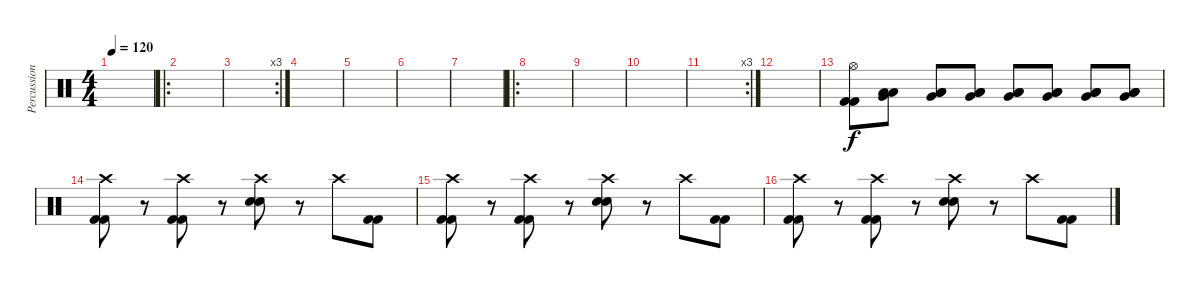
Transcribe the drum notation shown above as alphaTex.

\track ("Percussion" "Percussion") {instrument percussion}
\staff {score}
\articulation defaults
\ts (4 4)
\tempo 120
\clef neutral
\ks c
|
\ro
|
\rc 3
|
|
|
|
|
\ro
|
|
|
\rc 3
|
|
("Hi-Hat (open)" "Kick (hit) 2" "Kick (hit) 2").8 ("Very Low Tom (hit)" "Low Floor Tom (hit)" "Low Floor Tom (hit)").8 ("Very Low Tom (hit)" "Low Floor Tom (hit)" "Low Floor Tom (hit)").8 ("Very Low Tom (hit)" "Low Floor Tom (hit)" "Low Floor Tom (hit)").8 ("Very Low Tom (hit)" "Low Floor Tom (hit)" "Low Floor Tom (hit)").8 ("Very Low Tom (hit)" "Low Floor Tom (hit)" "Low Floor Tom (hit)").8 ("Very Low Tom (hit)" "Low Floor Tom (hit)" "Low Floor Tom (hit)").8 ("Very Low Tom (hit)" "Low Floor Tom (hit)" "Low Floor Tom (hit)").8 |
("Crash high (hit)" "Kick (hit) 2" "Kick (hit) 2").8 r.8 ("Crash high (hit)" "Kick (hit) 2" "Kick (hit) 2").8 r.8 ("Crash high (hit)" "Snare (hit) 2" "Snare (hit) 2").8 r.8 "Crash high (hit)".8 ("Kick (hit) 2" "Kick (hit) 2").8 |
("Crash high (hit)" "Kick (hit) 2" "Kick (hit) 2").8 r.8 ("Crash high (hit)" "Kick (hit) 2" "Kick (hit) 2").8 r.8 ("Crash high (hit)" "Snare (hit) 2" "Snare (hit) 2").8 r.8 "Crash high (hit)".8 ("Kick (hit) 2" "Kick (hit) 2").8 |
("Crash high (hit)" "Kick (hit) 2" "Kick (hit) 2").8 r.8 ("Crash high (hit)" "Kick (hit) 2" "Kick (hit) 2").8 r.8 ("Crash high (hit)" "Snare (hit) 2" "Snare (hit) 2").8 r.8 "Crash high (hit)".8 ("Kick (hit) 2" "Kick (hit) 2").8
